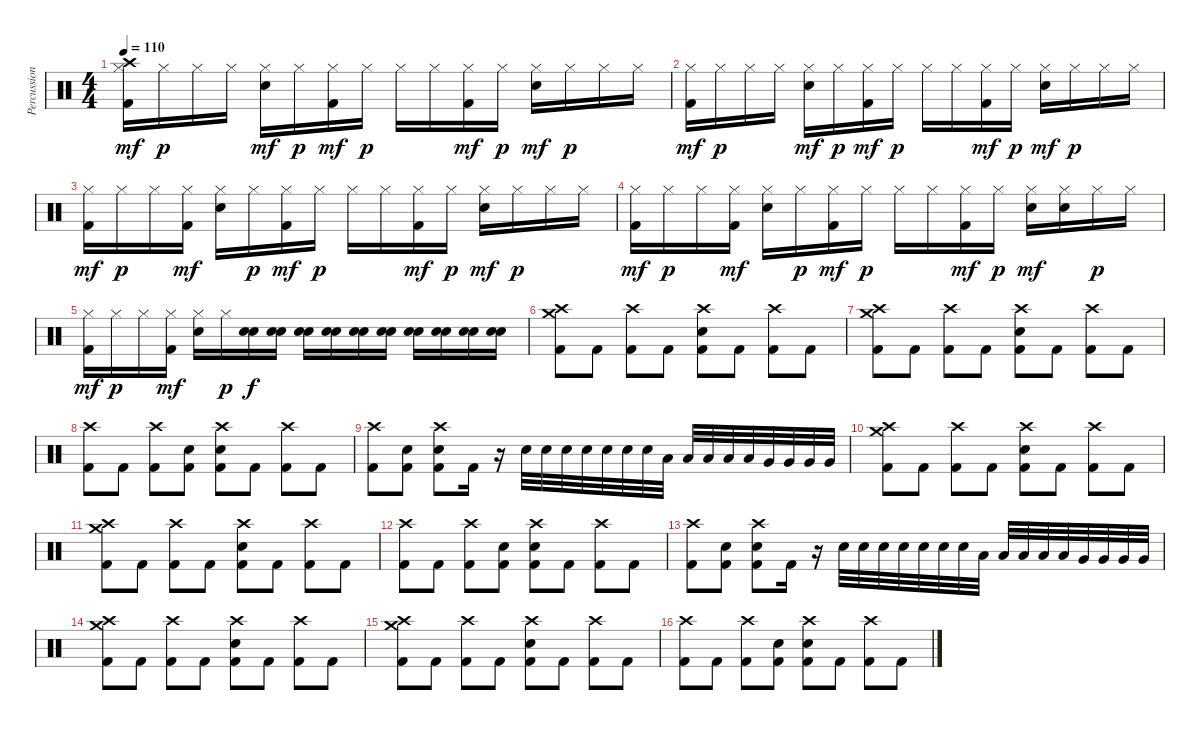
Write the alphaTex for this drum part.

\track ("Percussion" "Percussion") {instrument percussion}
\staff {score}
\articulation defaults
\ts (4 4)
\tempo 110
\clef neutral
\ks c
("Crash high (hit)" "Hi-Hat (closed)" "Kick (hit) 2").16{dy mf} "Hi-Hat (closed)".16{dy p} "Hi-Hat (closed)".16 "Hi-Hat (closed)".16 ("Hi-Hat (closed)" "Electric Snare (hit)").16{dy mf} "Hi-Hat (closed)".16{dy p} ("Hi-Hat (closed)" "Kick (hit) 2").16{dy mf} "Hi-Hat (closed)".16{dy p} "Hi-Hat (closed)".16 "Hi-Hat (closed)".16 ("Hi-Hat (closed)" "Kick (hit) 2").16{dy mf} "Hi-Hat (closed)".16{dy p} ("Hi-Hat (closed)" "Electric Snare (hit)").16{dy mf} "Hi-Hat (closed)".16{dy p} "Hi-Hat (closed)".16 "Hi-Hat (closed)".16 |
("Hi-Hat (closed)" "Kick (hit) 2").16{dy mf} "Hi-Hat (closed)".16{dy p} "Hi-Hat (closed)".16 "Hi-Hat (closed)".16 ("Hi-Hat (closed)" "Electric Snare (hit)").16{dy mf} "Hi-Hat (closed)".16{dy p} ("Hi-Hat (closed)" "Kick (hit) 2").16{dy mf} "Hi-Hat (closed)".16{dy p} "Hi-Hat (closed)".16 "Hi-Hat (closed)".16 ("Hi-Hat (closed)" "Kick (hit) 2").16{dy mf} "Hi-Hat (closed)".16{dy p} ("Hi-Hat (closed)" "Electric Snare (hit)").16{dy mf} "Hi-Hat (closed)".16{dy p} "Hi-Hat (closed)".16 "Hi-Hat (closed)".16 |
("Hi-Hat (closed)" "Kick (hit) 2").16{dy mf} "Hi-Hat (closed)".16{dy p} "Hi-Hat (closed)".16 ("Hi-Hat (closed)" "Kick (hit) 2").16{dy mf} ("Hi-Hat (closed)" "Electric Snare (hit)").16 "Hi-Hat (closed)".16{dy p} ("Hi-Hat (closed)" "Kick (hit) 2").16{dy mf} "Hi-Hat (closed)".16{dy p} "Hi-Hat (closed)".16 "Hi-Hat (closed)".16 ("Hi-Hat (closed)" "Kick (hit) 2").16{dy mf} "Hi-Hat (closed)".16{dy p} ("Hi-Hat (closed)" "Electric Snare (hit)").16{dy mf} "Hi-Hat (closed)".16{dy p} "Hi-Hat (closed)".16 "Hi-Hat (closed)".16 |
("Hi-Hat (closed)" "Kick (hit) 2").16{dy mf} "Hi-Hat (closed)".16{dy p} "Hi-Hat (closed)".16 ("Hi-Hat (closed)" "Kick (hit) 2").16{dy mf} ("Hi-Hat (closed)" "Electric Snare (hit)").16 "Hi-Hat (closed)".16{dy p} ("Hi-Hat (closed)" "Kick (hit) 2").16{dy mf} "Hi-Hat (closed)".16{dy p} "Hi-Hat (closed)".16 "Hi-Hat (closed)".16 ("Hi-Hat (closed)" "Kick (hit) 2").16{dy mf} "Hi-Hat (closed)".16{dy p} ("Hi-Hat (closed)" "Electric Snare (hit)").16{dy mf} ("Hi-Hat (closed)" "Electric Snare (hit)").16 "Hi-Hat (closed)".16{dy p} "Hi-Hat (closed)".16 |
("Hi-Hat (closed)" "Kick (hit) 2").16{dy mf} "Hi-Hat (closed)".16{dy p} "Hi-Hat (closed)".16 ("Hi-Hat (closed)" "Kick (hit) 2").16{dy mf} ("Hi-Hat (closed)" "Electric Snare (hit)").16 "Hi-Hat (closed)".16{dy p} ("Electric Snare (hit)" "Electric Snare (hit)").16{dy f} ("Electric Snare (hit)" "Electric Snare (hit)").16 ("Electric Snare (hit)" "Electric Snare (hit)").16 ("Electric Snare (hit)" "Electric Snare (hit)").16 ("Electric Snare (hit)" "Electric Snare (hit)").16 ("Electric Snare (hit)" "Electric Snare (hit)").16 ("Electric Snare (hit)" "Electric Snare (hit)").16 ("Electric Snare (hit)" "Electric Snare (hit)").16 ("Electric Snare (hit)" "Electric Snare (hit)").16 ("Electric Snare (hit)" "Electric Snare (hit)").16 |
("Crash high (hit)" "Crash medium (hit)" "Kick (hit) 2").8 "Kick (hit) 2".8 ("Crash high (hit)" "Kick (hit) 2").8 "Kick (hit) 2".8 ("Crash high (hit)" "Electric Snare (hit)" "Kick (hit) 2").8 "Kick (hit) 2".8 ("Crash high (hit)" "Kick (hit) 2").8 "Kick (hit) 2".8 |
("Crash high (hit)" "Crash medium (hit)" "Kick (hit) 2").8 "Kick (hit) 2".8 ("Crash high (hit)" "Kick (hit) 2").8 "Kick (hit) 2".8 ("Crash high (hit)" "Electric Snare (hit)" "Kick (hit) 2").8 "Kick (hit) 2".8 ("Crash high (hit)" "Kick (hit) 2").8 "Kick (hit) 2".8 |
("Crash high (hit)" "Kick (hit) 2").8 "Kick (hit) 2".8 ("Crash high (hit)" "Kick (hit) 2").8 ("Electric Snare (hit)" "Kick (hit) 2").8 ("Crash high (hit)" "Electric Snare (hit)" "Kick (hit) 2").8 "Kick (hit) 2".8 ("Crash high (hit)" "Kick (hit) 2").8 "Kick (hit) 2".8 |
("Crash high (hit)" "Kick (hit) 2").8 ("Electric Snare (hit)" "Kick (hit) 2").8 ("Crash high (hit)" "Electric Snare (hit)" "Kick (hit) 2").8 "Kick (hit) 2".16 r.16 "Electric Snare (hit)".32 "Electric Snare (hit)".32 "Electric Snare (hit)".32 "Electric Snare (hit)".32 "Electric Snare (hit)".32 "Electric Snare (hit)".32 "Electric Snare (hit)".32 "Low Tom (hit)".32 "Low Tom (hit)".32 "Low Tom (hit)".32 "Low Tom (hit)".32 "Low Tom (hit)".32 "Very Low Tom (hit)".32 "Very Low Tom (hit)".32 "Very Low Tom (hit)".32 "Very Low Tom (hit)".32 |
("Crash high (hit)" "Crash medium (hit)" "Kick (hit) 2").8 "Kick (hit) 2".8 ("Crash high (hit)" "Kick (hit) 2").8 "Kick (hit) 2".8 ("Crash high (hit)" "Electric Snare (hit)" "Kick (hit) 2").8 "Kick (hit) 2".8 ("Crash high (hit)" "Kick (hit) 2").8 "Kick (hit) 2".8 |
("Crash high (hit)" "Crash medium (hit)" "Kick (hit) 2").8 "Kick (hit) 2".8 ("Crash high (hit)" "Kick (hit) 2").8 "Kick (hit) 2".8 ("Crash high (hit)" "Electric Snare (hit)" "Kick (hit) 2").8 "Kick (hit) 2".8 ("Crash high (hit)" "Kick (hit) 2").8 "Kick (hit) 2".8 |
("Crash high (hit)" "Kick (hit) 2").8 "Kick (hit) 2".8 ("Crash high (hit)" "Kick (hit) 2").8 ("Electric Snare (hit)" "Kick (hit) 2").8 ("Crash high (hit)" "Electric Snare (hit)" "Kick (hit) 2").8 "Kick (hit) 2".8 ("Crash high (hit)" "Kick (hit) 2").8 "Kick (hit) 2".8 |
("Crash high (hit)" "Kick (hit) 2").8 ("Electric Snare (hit)" "Kick (hit) 2").8 ("Crash high (hit)" "Electric Snare (hit)" "Kick (hit) 2").8 "Kick (hit) 2".16 r.16 "Electric Snare (hit)".32 "Electric Snare (hit)".32 "Electric Snare (hit)".32 "Electric Snare (hit)".32 "Electric Snare (hit)".32 "Electric Snare (hit)".32 "Electric Snare (hit)".32 "Low Tom (hit)".32 "Low Tom (hit)".32 "Low Tom (hit)".32 "Low Tom (hit)".32 "Low Tom (hit)".32 "Very Low Tom (hit)".32 "Very Low Tom (hit)".32 "Very Low Tom (hit)".32 "Very Low Tom (hit)".32 |
("Crash high (hit)" "Crash medium (hit)" "Kick (hit) 2").8 "Kick (hit) 2".8 ("Crash high (hit)" "Kick (hit) 2").8 "Kick (hit) 2".8 ("Crash high (hit)" "Electric Snare (hit)" "Kick (hit) 2").8 "Kick (hit) 2".8 ("Crash high (hit)" "Kick (hit) 2").8 "Kick (hit) 2".8 |
("Crash high (hit)" "Crash medium (hit)" "Kick (hit) 2").8 "Kick (hit) 2".8 ("Crash high (hit)" "Kick (hit) 2").8 "Kick (hit) 2".8 ("Crash high (hit)" "Electric Snare (hit)" "Kick (hit) 2").8 "Kick (hit) 2".8 ("Crash high (hit)" "Kick (hit) 2").8 "Kick (hit) 2".8 |
("Crash high (hit)" "Kick (hit) 2").8 "Kick (hit) 2".8 ("Crash high (hit)" "Kick (hit) 2").8 ("Electric Snare (hit)" "Kick (hit) 2").8 ("Crash high (hit)" "Electric Snare (hit)" "Kick (hit) 2").8 "Kick (hit) 2".8 ("Crash high (hit)" "Kick (hit) 2").8 "Kick (hit) 2".8
